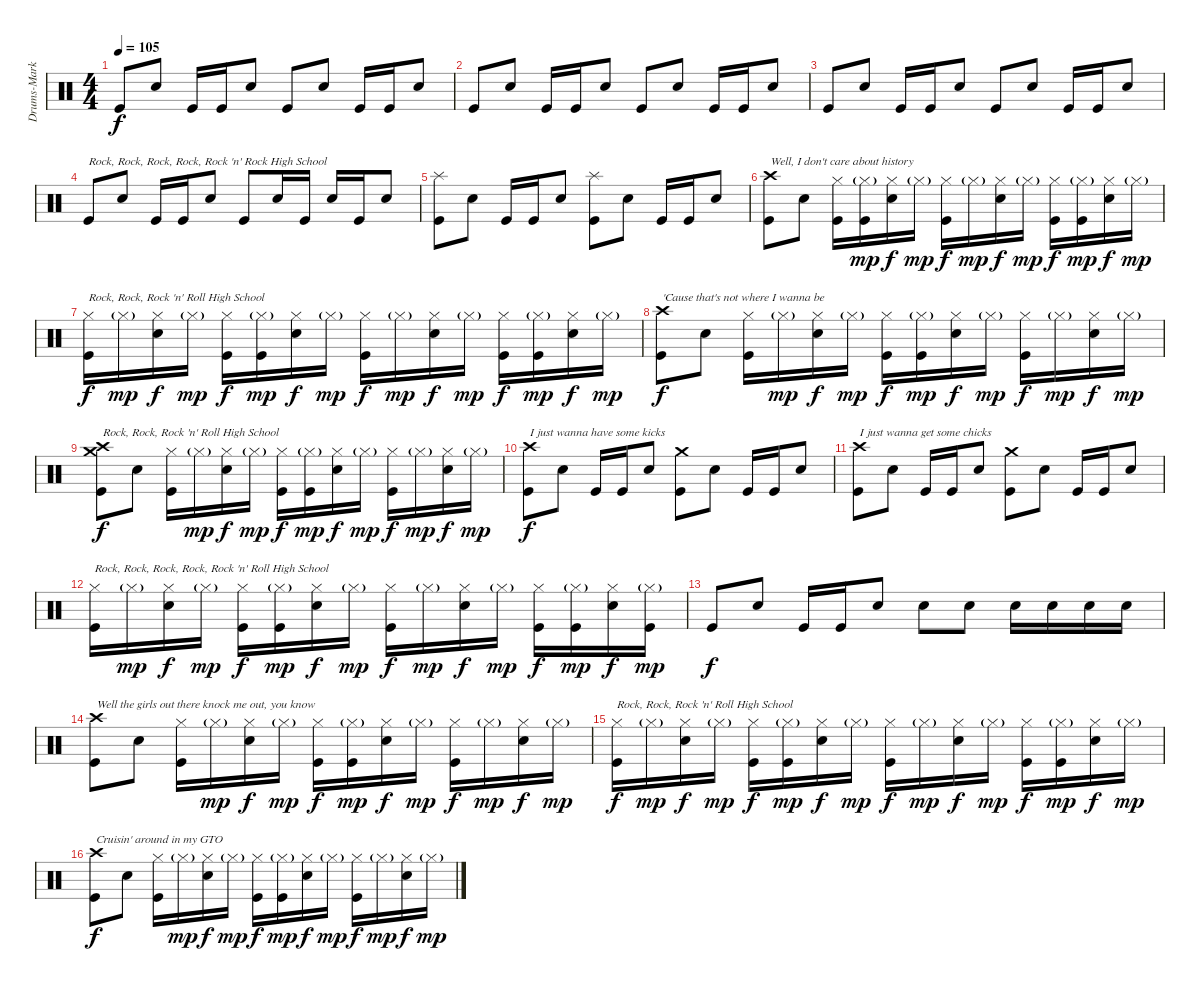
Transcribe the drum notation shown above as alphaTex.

\track ("Drums-Marky Ramone" "Drums-Mark") {instrument percussion}
\staff {score}
\articulation defaults
\ts (4 4)
\tempo 105
\clef neutral
\ks c "Kick (hit)".8{dy f} "Snare (hit) 2".8 "Kick (hit)".16 "Kick (hit)".16 "Snare (hit) 2".8 "Kick (hit)".8 "Snare (hit) 2".8 "Kick (hit)".16 "Kick (hit)".16 "Snare (hit) 2".8
|
"Kick (hit)".8 "Snare (hit) 2".8 "Kick (hit)".16 "Kick (hit)".16 "Snare (hit) 2".8 "Kick (hit)".8 "Snare (hit) 2".8 "Kick (hit)".16 "Kick (hit)".16 "Snare (hit) 2".8 |
"Kick (hit)".8 "Snare (hit) 2".8 "Kick (hit)".16 "Kick (hit)".16 "Snare (hit) 2".8 "Kick (hit)".8 "Snare (hit) 2".8 "Kick (hit)".16 "Kick (hit)".16 "Snare (hit) 2".8 |
"Kick (hit)".8{txt "Rock, Rock, Rock, Rock, Rock 'n' Rock High School"} "Snare (hit) 2".8 "Kick (hit)".16 "Kick (hit)".16 "Snare (hit) 2".8 "Kick (hit)".8 "Snare (hit) 2".16 "Kick (hit)".16 "Snare (hit) 2".16 "Kick (hit)".16 "Snare (hit) 2".8 |
("Splash (hit)" "Kick (hit)").8 "Snare (hit) 2".8 "Kick (hit)".16 "Kick (hit)".16 "Snare (hit) 2".8 ("Splash (hit)" "Kick (hit)").8 "Snare (hit) 2".8 "Kick (hit)".16 "Kick (hit)".16 "Snare (hit) 2".8 |
("Crash high (hit)" "Kick (hit)").8{txt "Well, I don't care about history"} "Snare (hit) 2".8 ("Hi-Hat (closed)" "Kick (hit)").16 ("Hi-Hat (closed)"{g} "Kick (hit)").16{dy mp} ("Hi-Hat (closed)" "Snare (hit) 2").16{dy f} "Hi-Hat (closed)"{g}.16{dy mp} ("Hi-Hat (closed)" "Kick (hit)").16{dy f} "Hi-Hat (closed)"{g}.16{dy mp} ("Hi-Hat (closed)" "Snare (hit) 2").16{dy f} "Hi-Hat (closed)"{g}.16{dy mp} ("Hi-Hat (closed)" "Kick (hit)").16{dy f} ("Hi-Hat (closed)"{g} "Kick (hit)").16{dy mp} ("Hi-Hat (closed)" "Snare (hit) 2").16{dy f} "Hi-Hat (closed)"{g}.16{dy mp} |
("Hi-Hat (closed)" "Kick (hit)").16{txt "Rock, Rock, Rock 'n' Roll High School" dy f} "Hi-Hat (closed)"{g}.16{dy mp} ("Hi-Hat (closed)" "Snare (hit) 2").16{dy f} "Hi-Hat (closed)"{g}.16{dy mp} ("Hi-Hat (closed)" "Kick (hit)").16{dy f} ("Hi-Hat (closed)"{g} "Kick (hit)").16{dy mp} ("Hi-Hat (closed)" "Snare (hit) 2").16{dy f} "Hi-Hat (closed)"{g}.16{dy mp} ("Hi-Hat (closed)" "Kick (hit)").16{dy f} "Hi-Hat (closed)"{g}.16{dy mp} ("Hi-Hat (closed)" "Snare (hit) 2").16{dy f} "Hi-Hat (closed)"{g}.16{dy mp} ("Hi-Hat (closed)" "Kick (hit)").16{dy f} ("Hi-Hat (closed)"{g} "Kick (hit)").16{dy mp} ("Hi-Hat (closed)" "Snare (hit) 2").16{dy f} "Hi-Hat (closed)"{g}.16{dy mp} |
("Crash high (hit)" "Kick (hit)").8{txt "'Cause that's not where I wanna be" dy f} "Snare (hit) 2".8 ("Hi-Hat (closed)" "Kick (hit)").16 "Hi-Hat (closed)"{g}.16{dy mp} ("Hi-Hat (closed)" "Snare (hit) 2").16{dy f} "Hi-Hat (closed)"{g}.16{dy mp} ("Hi-Hat (closed)" "Kick (hit)").16{dy f} ("Hi-Hat (closed)"{g} "Kick (hit)").16{dy mp} ("Hi-Hat (closed)" "Snare (hit) 2").16{dy f} "Hi-Hat (closed)"{g}.16{dy mp} ("Hi-Hat (closed)" "Kick (hit)").16{dy f} "Hi-Hat (closed)"{g}.16{dy mp} ("Hi-Hat (closed)" "Snare (hit) 2").16{dy f} "Hi-Hat (closed)"{g}.16{dy mp} |
("Crash high (hit)" "Crash medium (hit)" "Kick (hit)").8{txt "Rock, Rock, Rock 'n' Roll High School" dy f} "Snare (hit) 2".8 ("Hi-Hat (closed)" "Kick (hit)").16 "Hi-Hat (closed)"{g}.16{dy mp} ("Hi-Hat (closed)" "Snare (hit) 2").16{dy f} "Hi-Hat (closed)"{g}.16{dy mp} ("Hi-Hat (closed)" "Kick (hit)").16{dy f} ("Hi-Hat (closed)"{g} "Kick (hit)").16{dy mp} ("Hi-Hat (closed)" "Snare (hit) 2").16{dy f} "Hi-Hat (closed)"{g}.16{dy mp} ("Hi-Hat (closed)" "Kick (hit)").16{dy f} "Hi-Hat (closed)"{g}.16{dy mp} ("Hi-Hat (closed)" "Snare (hit) 2").16{dy f} "Hi-Hat (closed)"{g}.16{dy mp} |
("Crash high (hit)" "Kick (hit)").8{txt "I just wanna have some kicks" dy f} "Snare (hit) 2".8 "Kick (hit)".16 "Kick (hit)".16 "Snare (hit) 2".8 ("Crash medium (hit)" "Kick (hit)").8 "Snare (hit) 2".8 "Kick (hit)".16 "Kick (hit)".16 "Snare (hit) 2".8 |
("Crash high (hit)" "Kick (hit)").8{txt "I just wanna get some chicks"} "Snare (hit) 2".8 "Kick (hit)".16 "Kick (hit)".16 "Snare (hit) 2".8 ("Crash medium (hit)" "Kick (hit)").8 "Snare (hit) 2".8 "Kick (hit)".16 "Kick (hit)".16 "Snare (hit) 2".8 |
("Hi-Hat (closed)" "Kick (hit)").16{txt "Rock, Rock, Rock, Rock, Rock 'n' Roll High School"} "Hi-Hat (closed)"{g}.16{dy mp} ("Hi-Hat (closed)" "Snare (hit) 2").16{dy f} "Hi-Hat (closed)"{g}.16{dy mp} ("Hi-Hat (closed)" "Kick (hit)").16{dy f} ("Hi-Hat (closed)"{g} "Kick (hit)").16{dy mp} ("Hi-Hat (closed)" "Snare (hit) 2").16{dy f} "Hi-Hat (closed)"{g}.16{dy mp} ("Hi-Hat (closed)" "Kick (hit)").16{dy f} "Hi-Hat (closed)"{g}.16{dy mp} ("Hi-Hat (closed)" "Snare (hit) 2").16{dy f} "Hi-Hat (closed)"{g}.16{dy mp} ("Hi-Hat (closed)" "Kick (hit)").16{dy f} ("Hi-Hat (closed)"{g} "Kick (hit)").16{dy mp} ("Hi-Hat (closed)" "Snare (hit) 2").16{dy f} ("Hi-Hat (closed)"{g} "Kick (hit)").16{dy mp} |
"Kick (hit)".8{dy f} "Snare (hit) 2".8 "Kick (hit)".16 "Kick (hit)".16 "Snare (hit) 2".8 "Snare (hit) 2".8 "Snare (hit) 2".8 "Snare (hit) 2".16 "Snare (hit) 2".16 "Snare (hit) 2".16 "Snare (hit) 2".16 |
("Crash high (hit)" "Kick (hit)").8{txt "Well the girls out there knock me out, you know"} "Snare (hit) 2".8 ("Hi-Hat (closed)" "Kick (hit)").16 "Hi-Hat (closed)"{g}.16{dy mp} ("Hi-Hat (closed)" "Snare (hit) 2").16{dy f} "Hi-Hat (closed)"{g}.16{dy mp} ("Hi-Hat (closed)" "Kick (hit)").16{dy f} ("Hi-Hat (closed)"{g} "Kick (hit)").16{dy mp} ("Hi-Hat (closed)" "Snare (hit) 2").16{dy f} "Hi-Hat (closed)"{g}.16{dy mp} ("Hi-Hat (closed)" "Kick (hit)").16{dy f} "Hi-Hat (closed)"{g}.16{dy mp} ("Hi-Hat (closed)" "Snare (hit) 2").16{dy f} "Hi-Hat (closed)"{g}.16{dy mp} |
("Hi-Hat (closed)" "Kick (hit)").16{txt "Rock, Rock, Rock 'n' Roll High School" dy f} "Hi-Hat (closed)"{g}.16{dy mp} ("Hi-Hat (closed)" "Snare (hit) 2").16{dy f} "Hi-Hat (closed)"{g}.16{dy mp} ("Hi-Hat (closed)" "Kick (hit)").16{dy f} ("Hi-Hat (closed)"{g} "Kick (hit)").16{dy mp} ("Hi-Hat (closed)" "Snare (hit) 2").16{dy f} "Hi-Hat (closed)"{g}.16{dy mp} ("Hi-Hat (closed)" "Kick (hit)").16{dy f} "Hi-Hat (closed)"{g}.16{dy mp} ("Hi-Hat (closed)" "Snare (hit) 2").16{dy f} "Hi-Hat (closed)"{g}.16{dy mp} ("Hi-Hat (closed)" "Kick (hit)").16{dy f} ("Hi-Hat (closed)"{g} "Kick (hit)").16{dy mp} ("Hi-Hat (closed)" "Snare (hit) 2").16{dy f} "Hi-Hat (closed)"{g}.16{dy mp} |
("Crash high (hit)" "Kick (hit)").8{txt "Cruisin' around in my GTO" dy f} "Snare (hit) 2".8 ("Hi-Hat (closed)" "Kick (hit)").16 "Hi-Hat (closed)"{g}.16{dy mp} ("Hi-Hat (closed)" "Snare (hit) 2").16{dy f} "Hi-Hat (closed)"{g}.16{dy mp} ("Hi-Hat (closed)" "Kick (hit)").16{dy f} ("Hi-Hat (closed)"{g} "Kick (hit)").16{dy mp} ("Hi-Hat (closed)" "Snare (hit) 2").16{dy f} "Hi-Hat (closed)"{g}.16{dy mp} ("Hi-Hat (closed)" "Kick (hit)").16{dy f} "Hi-Hat (closed)"{g}.16{dy mp} ("Hi-Hat (closed)" "Snare (hit) 2").16{dy f} "Hi-Hat (closed)"{g}.16{dy mp}
